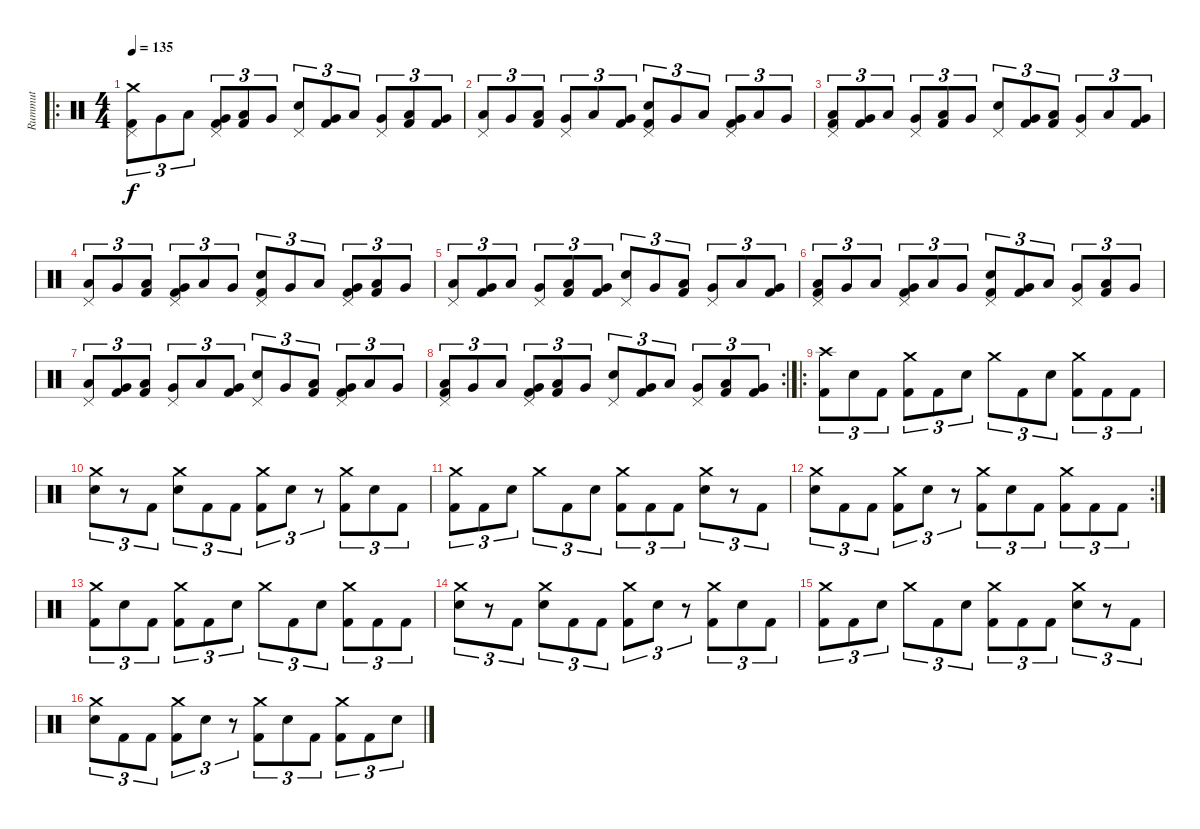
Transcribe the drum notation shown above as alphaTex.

\track ("Rummut" "Rummut") {instrument percussion}
\staff {score}
\articulation defaults
\ro
\ts (4 4)
\tempo 135
\clef neutral
\ks c
("Crash medium (hit)" "Pedal Hi-Hat (hit)" "Kick (hit) 2").8{tu (3 2) dy f} "Very Low Tom (hit)".8{tu (3 2)} "Low Floor Tom (hit)".8{tu (3 2)} ("Pedal Hi-Hat (hit)" "Very Low Tom (hit)" "Kick (hit) 2").8{tu (3 2)} ("Low Floor Tom (hit)" "Kick (hit) 2").8{tu (3 2)} "Very Low Tom (hit)".8{tu (3 2)} ("Pedal Hi-Hat (hit)" "Electric Snare (hit)").8{tu (3 2)} ("Very Low Tom (hit)" "Kick (hit) 2").8{tu (3 2)} "Low Floor Tom (hit)".8{tu (3 2)} ("Pedal Hi-Hat (hit)" "Very Low Tom (hit)").8{tu (3 2)} ("Low Floor Tom (hit)" "Kick (hit) 2").8{tu (3 2)} ("Very Low Tom (hit)" "Kick (hit) 2").8{tu (3 2)} |
("Pedal Hi-Hat (hit)" "Low Floor Tom (hit)").8{tu (3 2)} "Very Low Tom (hit)".8{tu (3 2)} ("Low Floor Tom (hit)" "Kick (hit) 2").8{tu (3 2)} ("Pedal Hi-Hat (hit)" "Very Low Tom (hit)").8{tu (3 2)} "Low Floor Tom (hit)".8{tu (3 2)} ("Very Low Tom (hit)" "Kick (hit) 2").8{tu (3 2)} ("Pedal Hi-Hat (hit)" "Electric Snare (hit)" "Kick (hit) 2").8{tu (3 2)} "Very Low Tom (hit)".8{tu (3 2)} "Low Floor Tom (hit)".8{tu (3 2)} ("Pedal Hi-Hat (hit)" "Very Low Tom (hit)" "Kick (hit) 2").8{tu (3 2)} "Low Floor Tom (hit)".8{tu (3 2)} "Very Low Tom (hit)".8{tu (3 2)} |
("Pedal Hi-Hat (hit)" "Low Floor Tom (hit)" "Kick (hit) 2").8{tu (3 2)} ("Very Low Tom (hit)" "Kick (hit) 2").8{tu (3 2)} "Low Floor Tom (hit)".8{tu (3 2)} ("Pedal Hi-Hat (hit)" "Very Low Tom (hit)").8{tu (3 2)} ("Low Floor Tom (hit)" "Kick (hit) 2").8{tu (3 2)} "Very Low Tom (hit)".8{tu (3 2)} ("Pedal Hi-Hat (hit)" "Electric Snare (hit)").8{tu (3 2)} ("Very Low Tom (hit)" "Kick (hit) 2").8{tu (3 2)} ("Low Floor Tom (hit)" "Kick (hit) 2").8{tu (3 2)} ("Pedal Hi-Hat (hit)" "Very Low Tom (hit)").8{tu (3 2)} "Low Floor Tom (hit)".8{tu (3 2)} ("Very Low Tom (hit)" "Kick (hit) 2").8{tu (3 2)} |
("Pedal Hi-Hat (hit)" "Low Floor Tom (hit)").8{tu (3 2)} "Very Low Tom (hit)".8{tu (3 2)} ("Low Floor Tom (hit)" "Kick (hit) 2").8{tu (3 2)} ("Pedal Hi-Hat (hit)" "Very Low Tom (hit)" "Kick (hit) 2").8{tu (3 2)} "Low Floor Tom (hit)".8{tu (3 2)} "Very Low Tom (hit)".8{tu (3 2)} ("Pedal Hi-Hat (hit)" "Electric Snare (hit)" "Kick (hit) 2").8{tu (3 2)} "Very Low Tom (hit)".8{tu (3 2)} "Low Floor Tom (hit)".8{tu (3 2)} ("Pedal Hi-Hat (hit)" "Very Low Tom (hit)" "Kick (hit) 2").8{tu (3 2)} ("Low Floor Tom (hit)" "Kick (hit) 2").8{tu (3 2)} "Very Low Tom (hit)".8{tu (3 2)} |
("Pedal Hi-Hat (hit)" "Low Floor Tom (hit)").8{tu (3 2)} ("Very Low Tom (hit)" "Kick (hit) 2").8{tu (3 2)} "Low Floor Tom (hit)".8{tu (3 2)} ("Pedal Hi-Hat (hit)" "Very Low Tom (hit)").8{tu (3 2)} ("Low Floor Tom (hit)" "Kick (hit) 2").8{tu (3 2)} ("Very Low Tom (hit)" "Kick (hit) 2").8{tu (3 2)} ("Pedal Hi-Hat (hit)" "Electric Snare (hit)").8{tu (3 2)} "Very Low Tom (hit)".8{tu (3 2)} ("Low Floor Tom (hit)" "Kick (hit) 2").8{tu (3 2)} ("Pedal Hi-Hat (hit)" "Very Low Tom (hit)").8{tu (3 2)} "Low Floor Tom (hit)".8{tu (3 2)} ("Very Low Tom (hit)" "Kick (hit) 2").8{tu (3 2)} |
("Pedal Hi-Hat (hit)" "Low Floor Tom (hit)" "Kick (hit) 2").8{tu (3 2)} "Very Low Tom (hit)".8{tu (3 2)} "Low Floor Tom (hit)".8{tu (3 2)} ("Pedal Hi-Hat (hit)" "Very Low Tom (hit)" "Kick (hit) 2").8{tu (3 2)} "Low Floor Tom (hit)".8{tu (3 2)} "Very Low Tom (hit)".8{tu (3 2)} ("Pedal Hi-Hat (hit)" "Electric Snare (hit)" "Kick (hit) 2").8{tu (3 2)} ("Very Low Tom (hit)" "Kick (hit) 2").8{tu (3 2)} "Low Floor Tom (hit)".8{tu (3 2)} ("Pedal Hi-Hat (hit)" "Very Low Tom (hit)").8{tu (3 2)} ("Low Floor Tom (hit)" "Kick (hit) 2").8{tu (3 2)} "Very Low Tom (hit)".8{tu (3 2)} |
("Pedal Hi-Hat (hit)" "Low Floor Tom (hit)").8{tu (3 2)} ("Very Low Tom (hit)" "Kick (hit) 2").8{tu (3 2)} ("Low Floor Tom (hit)" "Kick (hit) 2").8{tu (3 2)} ("Pedal Hi-Hat (hit)" "Very Low Tom (hit)").8{tu (3 2)} "Low Floor Tom (hit)".8{tu (3 2)} ("Very Low Tom (hit)" "Kick (hit) 2").8{tu (3 2)} ("Pedal Hi-Hat (hit)" "Electric Snare (hit)").8{tu (3 2)} "Very Low Tom (hit)".8{tu (3 2)} ("Low Floor Tom (hit)" "Kick (hit) 2").8{tu (3 2)} ("Pedal Hi-Hat (hit)" "Very Low Tom (hit)" "Kick (hit) 2").8{tu (3 2)} "Low Floor Tom (hit)".8{tu (3 2)} "Very Low Tom (hit)".8{tu (3 2)} |
\rc 2
("Pedal Hi-Hat (hit)" "Low Floor Tom (hit)" "Kick (hit) 2").8{tu (3 2)} "Very Low Tom (hit)".8{tu (3 2)} "Low Floor Tom (hit)".8{tu (3 2)} ("Pedal Hi-Hat (hit)" "Very Low Tom (hit)" "Kick (hit) 2").8{tu (3 2)} ("Low Floor Tom (hit)" "Kick (hit) 2").8{tu (3 2)} "Very Low Tom (hit)".8{tu (3 2)} ("Pedal Hi-Hat (hit)" "Electric Snare (hit)").8{tu (3 2)} ("Very Low Tom (hit)" "Kick (hit) 2").8{tu (3 2)} "Low Floor Tom (hit)".8{tu (3 2)} ("Pedal Hi-Hat (hit)" "Very Low Tom (hit)").8{tu (3 2)} ("Low Floor Tom (hit)" "Kick (hit) 2").8{tu (3 2)} ("Very Low Tom (hit)" "Kick (hit) 2").8{tu (3 2)} |
\ro
("Crash high (hit)" "Kick (hit) 2").8{tu (3 2)} "Electric Snare (hit)".8{tu (3 2)} "Kick (hit) 2".8{tu (3 2)} ("Crash medium (hit)" "Kick (hit) 2").8{tu (3 2)} "Kick (hit) 2".8{tu (3 2)} "Electric Snare (hit)".8{tu (3 2)} "Crash medium (hit)".8{tu (3 2)} "Kick (hit) 2".8{tu (3 2)} "Electric Snare (hit)".8{tu (3 2)} ("Crash medium (hit)" "Kick (hit) 2").8{tu (3 2)} "Kick (hit) 2".8{tu (3 2)} "Kick (hit) 2".8{tu (3 2)} |
("Crash medium (hit)" "Electric Snare (hit)").8{tu (3 2)} r.8{tu (3 2)} "Kick (hit) 2".8{tu (3 2)} ("Crash medium (hit)" "Electric Snare (hit)").8{tu (3 2)} "Kick (hit) 2".8{tu (3 2)} "Kick (hit) 2".8{tu (3 2)} ("Crash medium (hit)" "Kick (hit) 2").8{tu (3 2)} "Electric Snare (hit)".8{tu (3 2)} r.8{tu (3 2)} ("Crash medium (hit)" "Kick (hit) 2").8{tu (3 2)} "Electric Snare (hit)".8{tu (3 2)} "Kick (hit) 2".8{tu (3 2)} |
("Crash medium (hit)" "Kick (hit) 2").8{tu (3 2)} "Kick (hit) 2".8{tu (3 2)} "Electric Snare (hit)".8{tu (3 2)} "Crash medium (hit)".8{tu (3 2)} "Kick (hit) 2".8{tu (3 2)} "Electric Snare (hit)".8{tu (3 2)} ("Crash medium (hit)" "Kick (hit) 2").8{tu (3 2)} "Kick (hit) 2".8{tu (3 2)} "Kick (hit) 2".8{tu (3 2)} ("Crash medium (hit)" "Electric Snare (hit)").8{tu (3 2)} r.8{tu (3 2)} "Kick (hit) 2".8{tu (3 2)} |
\rc 2
("Crash medium (hit)" "Electric Snare (hit)").8{tu (3 2)} "Kick (hit) 2".8{tu (3 2)} "Kick (hit) 2".8{tu (3 2)} ("Crash medium (hit)" "Kick (hit) 2").8{tu (3 2)} "Electric Snare (hit)".8{tu (3 2)} r.8{tu (3 2)} ("Crash medium (hit)" "Kick (hit) 2").8{tu (3 2)} "Electric Snare (hit)".8{tu (3 2)} "Kick (hit) 2".8{tu (3 2)} ("Crash medium (hit)" "Kick (hit) 2").8{tu (3 2)} "Kick (hit) 2".8{tu (3 2)} "Kick (hit) 2".8{tu (3 2)} |
("Crash medium (hit)" "Kick (hit) 2").8{tu (3 2)} "Electric Snare (hit)".8{tu (3 2)} "Kick (hit) 2".8{tu (3 2)} ("Crash medium (hit)" "Kick (hit) 2").8{tu (3 2)} "Kick (hit) 2".8{tu (3 2)} "Electric Snare (hit)".8{tu (3 2)} "Crash medium (hit)".8{tu (3 2)} "Kick (hit) 2".8{tu (3 2)} "Electric Snare (hit)".8{tu (3 2)} ("Crash medium (hit)" "Kick (hit) 2").8{tu (3 2)} "Kick (hit) 2".8{tu (3 2)} "Kick (hit) 2".8{tu (3 2)} |
("Crash medium (hit)" "Electric Snare (hit)").8{tu (3 2)} r.8{tu (3 2)} "Kick (hit) 2".8{tu (3 2)} ("Crash medium (hit)" "Electric Snare (hit)").8{tu (3 2)} "Kick (hit) 2".8{tu (3 2)} "Kick (hit) 2".8{tu (3 2)} ("Crash medium (hit)" "Kick (hit) 2").8{tu (3 2)} "Electric Snare (hit)".8{tu (3 2)} r.8{tu (3 2)} ("Crash medium (hit)" "Kick (hit) 2").8{tu (3 2)} "Electric Snare (hit)".8{tu (3 2)} "Kick (hit) 2".8{tu (3 2)} |
("Crash medium (hit)" "Kick (hit) 2").8{tu (3 2)} "Kick (hit) 2".8{tu (3 2)} "Electric Snare (hit)".8{tu (3 2)} "Crash medium (hit)".8{tu (3 2)} "Kick (hit) 2".8{tu (3 2)} "Electric Snare (hit)".8{tu (3 2)} ("Crash medium (hit)" "Kick (hit) 2").8{tu (3 2)} "Kick (hit) 2".8{tu (3 2)} "Kick (hit) 2".8{tu (3 2)} ("Crash medium (hit)" "Electric Snare (hit)").8{tu (3 2)} r.8{tu (3 2)} "Kick (hit) 2".8{tu (3 2)} |
("Crash medium (hit)" "Electric Snare (hit)").8{tu (3 2)} "Kick (hit) 2".8{tu (3 2)} "Kick (hit) 2".8{tu (3 2)} ("Crash medium (hit)" "Kick (hit) 2").8{tu (3 2)} "Electric Snare (hit)".8{tu (3 2)} r.8{tu (3 2)} ("Crash medium (hit)" "Kick (hit) 2").8{tu (3 2)} "Electric Snare (hit)".8{tu (3 2)} "Kick (hit) 2".8{tu (3 2)} ("Crash medium (hit)" "Kick (hit) 2").8{tu (3 2)} "Kick (hit) 2".8{tu (3 2)} "Electric Snare (hit)".8{tu (3 2)}
